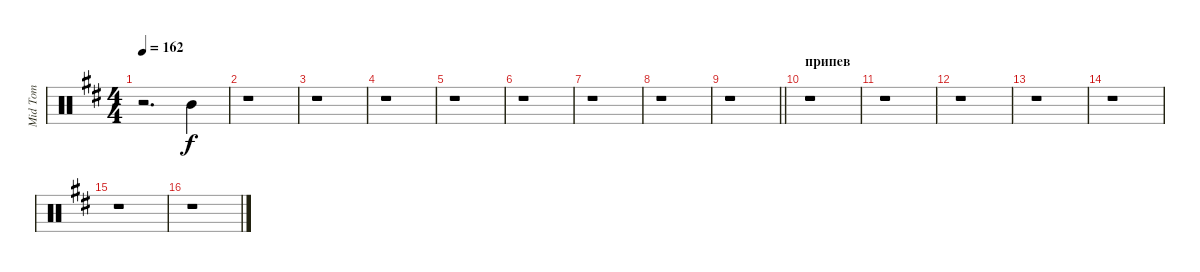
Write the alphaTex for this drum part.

\track ("Mid Tom" "Mid Tom") {instrument percussion}
\staff {score}
\articulation defaults
\ts (4 4)
\tempo 162
\clef neutral
\ks bminor
r.2{d dy f} "Mid Tom (hit)".4 |
r.1 |
r.1 |
r.1 |
r.1 |
r.1 |
r.1 |
r.1 |
\barLineRight lightlight
r.1 |
\section ("" "припев")
r.1 |
r.1 |
r.1 |
r.1 |
r.1 |
r.1 |
r.1
